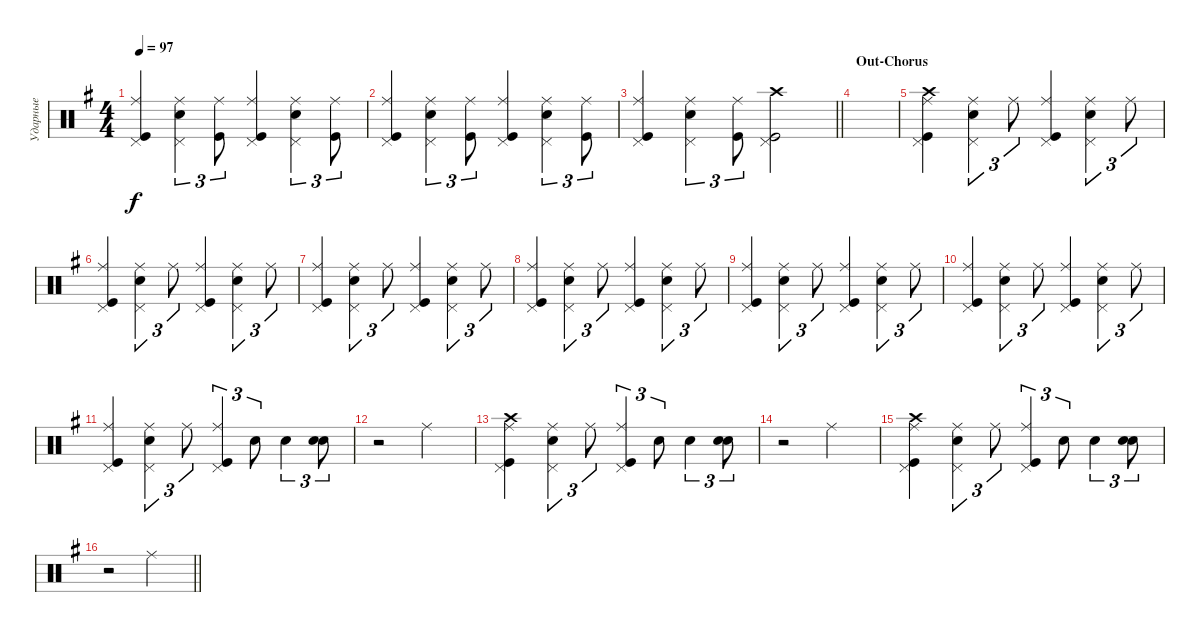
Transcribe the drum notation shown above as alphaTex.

\track ("Ударные" "Ударные") {instrument percussion}
\staff {score}
\articulation defaults
\ts (4 4)
\tempo 97
\clef neutral
\ks eminor
("Kick (hit)" "Ride (middle)" "Pedal Hi-Hat (hit)").4{dy f} ("Snare (hit) 2" "Ride (middle)" "Pedal Hi-Hat (hit)").4{tu (3 2)} ("Ride (middle)" "Kick (hit)").8{tu (3 2)} ("Kick (hit)" "Ride (middle)" "Pedal Hi-Hat (hit)").4 ("Snare (hit) 2" "Ride (middle)" "Pedal Hi-Hat (hit)").4{tu (3 2)} ("Ride (middle)" "Kick (hit)").8{tu (3 2)} |
("Kick (hit)" "Ride (middle)" "Pedal Hi-Hat (hit)").4 ("Snare (hit) 2" "Ride (middle)" "Pedal Hi-Hat (hit)").4{tu (3 2)} ("Ride (middle)" "Kick (hit)").8{tu (3 2)} ("Kick (hit)" "Ride (middle)" "Pedal Hi-Hat (hit)").4 ("Snare (hit) 2" "Ride (middle)" "Pedal Hi-Hat (hit)").4{tu (3 2)} ("Ride (middle)" "Kick (hit)").8{tu (3 2)} |
\barLineRight lightlight
("Kick (hit)" "Ride (middle)" "Pedal Hi-Hat (hit)").4 ("Snare (hit) 2" "Ride (middle)" "Pedal Hi-Hat (hit)").4{tu (3 2)} ("Ride (middle)" "Kick (hit)").8{tu (3 2)} ("Kick (hit)" "Crash high (hit)" "Pedal Hi-Hat (hit)").2 |
\section ("" "Out-Chorus")
|
("Kick (hit)" "Ride (middle)" "Pedal Hi-Hat (hit)" "Crash high (hit)").4 ("Snare (hit) 2" "Ride (middle)" "Pedal Hi-Hat (hit)").4{tu (3 2)} "Ride (middle)".8{tu (3 2)} ("Kick (hit)" "Ride (middle)" "Pedal Hi-Hat (hit)").4 ("Snare (hit) 2" "Ride (middle)" "Pedal Hi-Hat (hit)").4{tu (3 2)} "Ride (middle)".8{tu (3 2)} |
("Kick (hit)" "Ride (middle)" "Pedal Hi-Hat (hit)").4 ("Snare (hit) 2" "Ride (middle)" "Pedal Hi-Hat (hit)").4{tu (3 2)} "Ride (middle)".8{tu (3 2)} ("Kick (hit)" "Ride (middle)" "Pedal Hi-Hat (hit)").4 ("Snare (hit) 2" "Ride (middle)" "Pedal Hi-Hat (hit)").4{tu (3 2)} "Ride (middle)".8{tu (3 2)} |
("Kick (hit)" "Ride (middle)" "Pedal Hi-Hat (hit)").4 ("Snare (hit) 2" "Ride (middle)" "Pedal Hi-Hat (hit)").4{tu (3 2)} "Ride (middle)".8{tu (3 2)} ("Kick (hit)" "Ride (middle)" "Pedal Hi-Hat (hit)").4 ("Snare (hit) 2" "Ride (middle)" "Pedal Hi-Hat (hit)").4{tu (3 2)} "Ride (middle)".8{tu (3 2)} |
("Kick (hit)" "Ride (middle)" "Pedal Hi-Hat (hit)").4 ("Snare (hit) 2" "Ride (middle)" "Pedal Hi-Hat (hit)").4{tu (3 2)} "Ride (middle)".8{tu (3 2)} ("Kick (hit)" "Ride (middle)" "Pedal Hi-Hat (hit)").4 ("Snare (hit) 2" "Ride (middle)" "Pedal Hi-Hat (hit)").4{tu (3 2)} "Ride (middle)".8{tu (3 2)} |
("Kick (hit)" "Ride (middle)" "Pedal Hi-Hat (hit)").4 ("Snare (hit) 2" "Ride (middle)" "Pedal Hi-Hat (hit)").4{tu (3 2)} "Ride (middle)".8{tu (3 2)} ("Kick (hit)" "Ride (middle)" "Pedal Hi-Hat (hit)").4 ("Snare (hit) 2" "Ride (middle)" "Pedal Hi-Hat (hit)").4{tu (3 2)} "Ride (middle)".8{tu (3 2)} |
("Kick (hit)" "Ride (middle)" "Pedal Hi-Hat (hit)").4 ("Snare (hit) 2" "Ride (middle)" "Pedal Hi-Hat (hit)").4{tu (3 2)} "Ride (middle)".8{tu (3 2)} ("Kick (hit)" "Ride (middle)" "Pedal Hi-Hat (hit)").4 ("Snare (hit) 2" "Ride (middle)" "Pedal Hi-Hat (hit)").4{tu (3 2)} "Ride (middle)".8{tu (3 2)} |
("Kick (hit)" "Pedal Hi-Hat (hit)" "Ride (middle)").4 ("Snare (hit) 2" "Pedal Hi-Hat (hit)" "Ride (middle)").4{tu (3 2)} "Ride (middle)".8{tu (3 2)} ("Kick (hit)" "Pedal Hi-Hat (hit)" "Ride (middle)").4{tu (3 2)} "Snare (hit) 2".8{tu (3 2)} "Snare (hit) 2".4{tu (3 2)} ("Snare (hit) 2" "Snare (hit) 2").8{tu (3 2) bd 480} |
r.2 "Ride (middle)".2 |
("Kick (hit)" "Pedal Hi-Hat (hit)" "Ride (middle)" "Crash high (hit)").4 ("Snare (hit) 2" "Pedal Hi-Hat (hit)" "Ride (middle)").4{tu (3 2)} "Ride (middle)".8{tu (3 2)} ("Kick (hit)" "Pedal Hi-Hat (hit)" "Ride (middle)").4{tu (3 2)} "Snare (hit) 2".8{tu (3 2)} "Snare (hit) 2".4{tu (3 2)} ("Snare (hit) 2" "Snare (hit) 2").8{tu (3 2) bd 480} |
r.2 "Ride (middle)".2 |
("Kick (hit)" "Pedal Hi-Hat (hit)" "Ride (middle)" "Crash high (hit)").4 ("Snare (hit) 2" "Pedal Hi-Hat (hit)" "Ride (middle)").4{tu (3 2)} "Ride (middle)".8{tu (3 2)} ("Kick (hit)" "Pedal Hi-Hat (hit)" "Ride (middle)").4{tu (3 2)} "Snare (hit) 2".8{tu (3 2)} "Snare (hit) 2".4{tu (3 2)} ("Snare (hit) 2" "Snare (hit) 2").8{tu (3 2) bd 480} |
\barLineRight lightlight
r.2 "Ride (middle)".2
